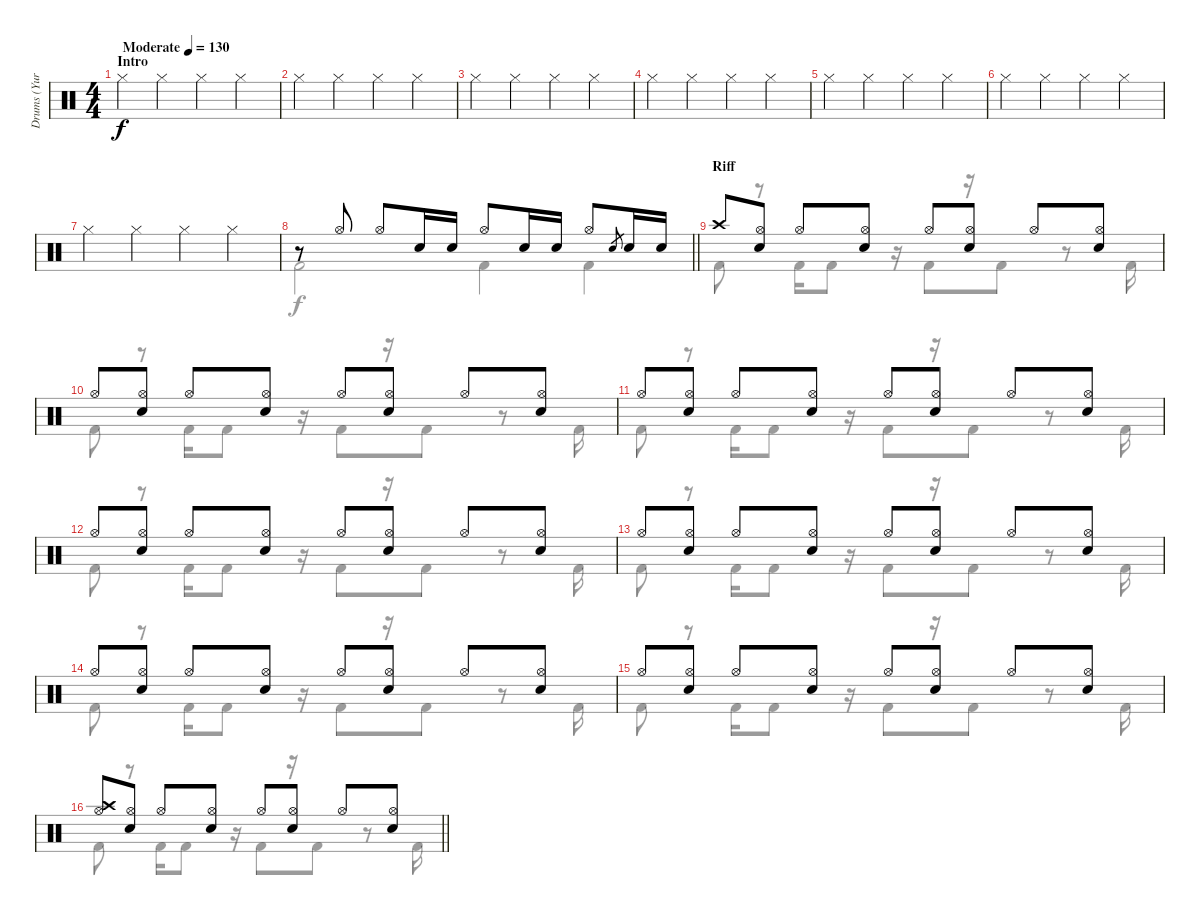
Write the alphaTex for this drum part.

\track ("Drums (Yuri)" "Drums (Yur") {instrument percussion}
\staff {score}
\articulation defaults
\voice
\ts (4 4)
\section ("" "Intro")
\tempo (130 "Moderate")
\clef neutral
\ks c "Hi-Hat (closed)".4{dy f} "Hi-Hat (closed)".4 "Hi-Hat (closed)".4 "Hi-Hat (closed)".4
|
"Hi-Hat (closed)".4 "Hi-Hat (closed)".4 "Hi-Hat (closed)".4 "Hi-Hat (closed)".4 |
"Hi-Hat (closed)".4 "Hi-Hat (closed)".4 "Hi-Hat (closed)".4 "Hi-Hat (closed)".4 |
"Hi-Hat (closed)".4 "Hi-Hat (closed)".4 "Hi-Hat (closed)".4 "Hi-Hat (closed)".4 |
"Hi-Hat (closed)".4 "Hi-Hat (closed)".4 "Hi-Hat (closed)".4 "Hi-Hat (closed)".4 |
"Hi-Hat (closed)".4 "Hi-Hat (closed)".4 "Hi-Hat (closed)".4 "Hi-Hat (closed)".4 |
"Hi-Hat (closed)".4 "Hi-Hat (closed)".4 "Hi-Hat (closed)".4 "Hi-Hat (closed)".4 |
\barLineRight lightlight
r.8 "Hi-Hat (open)".8 "Hi-Hat (open)".8 "Electric Snare (hit)".16 "Electric Snare (hit)".16 "Hi-Hat (open)".8 "Electric Snare (hit)".16 "Electric Snare (hit)".16 "Hi-Hat (open)".8 "Electric Snare (hit)".8{gr} "Electric Snare (hit)".16 "Electric Snare (hit)".16 |
\section ("" "Riff")
"Crash high (hit)".8 ("Electric Snare (hit)" "Hi-Hat (open)").8 "Hi-Hat (open)".8 ("Electric Snare (hit)" "Hi-Hat (open)").8 "Hi-Hat (open)".8 ("Electric Snare (hit)" "Hi-Hat (open)").8 "Hi-Hat (open)".8 ("Electric Snare (hit)" "Hi-Hat (open)").8 |
"Hi-Hat (open)".8 ("Electric Snare (hit)" "Hi-Hat (open)").8 "Hi-Hat (open)".8 ("Electric Snare (hit)" "Hi-Hat (open)").8 "Hi-Hat (open)".8 ("Electric Snare (hit)" "Hi-Hat (open)").8 "Hi-Hat (open)".8 ("Electric Snare (hit)" "Hi-Hat (open)").8 |
"Hi-Hat (open)".8 ("Electric Snare (hit)" "Hi-Hat (open)").8 "Hi-Hat (open)".8 ("Electric Snare (hit)" "Hi-Hat (open)").8 "Hi-Hat (open)".8 ("Electric Snare (hit)" "Hi-Hat (open)").8 "Hi-Hat (open)".8 ("Electric Snare (hit)" "Hi-Hat (open)").8 |
"Hi-Hat (open)".8 ("Electric Snare (hit)" "Hi-Hat (open)").8 "Hi-Hat (open)".8 ("Electric Snare (hit)" "Hi-Hat (open)").8 "Hi-Hat (open)".8 ("Electric Snare (hit)" "Hi-Hat (open)").8 "Hi-Hat (open)".8 ("Electric Snare (hit)" "Hi-Hat (open)").8 |
"Hi-Hat (open)".8 ("Electric Snare (hit)" "Hi-Hat (open)").8 "Hi-Hat (open)".8 ("Electric Snare (hit)" "Hi-Hat (open)").8 "Hi-Hat (open)".8 ("Electric Snare (hit)" "Hi-Hat (open)").8 "Hi-Hat (open)".8 ("Electric Snare (hit)" "Hi-Hat (open)").8 |
"Hi-Hat (open)".8 ("Electric Snare (hit)" "Hi-Hat (open)").8 "Hi-Hat (open)".8 ("Electric Snare (hit)" "Hi-Hat (open)").8 "Hi-Hat (open)".8 ("Electric Snare (hit)" "Hi-Hat (open)").8 "Hi-Hat (open)".8 ("Electric Snare (hit)" "Hi-Hat (open)").8 |
"Hi-Hat (open)".8 ("Electric Snare (hit)" "Hi-Hat (open)").8 "Hi-Hat (open)".8 ("Electric Snare (hit)" "Hi-Hat (open)").8 "Hi-Hat (open)".8 ("Electric Snare (hit)" "Hi-Hat (open)").8 "Hi-Hat (open)".8 ("Electric Snare (hit)" "Hi-Hat (open)").8 |
\barLineRight lightlight
("Crash high (hit)" "Hi-Hat (open)").8 ("Electric Snare (hit)" "Hi-Hat (open)").8 "Hi-Hat (open)".8 ("Electric Snare (hit)" "Hi-Hat (open)").8 "Hi-Hat (open)".8 ("Electric Snare (hit)" "Hi-Hat (open)").8 "Hi-Hat (open)".8 ("Electric Snare (hit)" "Hi-Hat (open)").8
\voice
\clef neutral
\ottava regular
\simile none
\ks c
|
|
|
|
|
|
|
\barLineRight lightlight "Kick (hit) 2".2 "Kick (hit) 2".4 "Kick (hit) 2".4
|
"Kick (hit) 2".8 r.8 "Kick (hit) 2".16 "Kick (hit) 2".8 r.16 "Kick (hit) 2".8 r.16 "Kick (hit) 2".8 r.8 "Kick (hit) 2".16 |
"Kick (hit) 2".8 r.8 "Kick (hit) 2".16 "Kick (hit) 2".8 r.16 "Kick (hit) 2".8 r.16 "Kick (hit) 2".8 r.8 "Kick (hit) 2".16 |
"Kick (hit) 2".8 r.8 "Kick (hit) 2".16 "Kick (hit) 2".8 r.16 "Kick (hit) 2".8 r.16 "Kick (hit) 2".8 r.8 "Kick (hit) 2".16 |
"Kick (hit) 2".8 r.8 "Kick (hit) 2".16 "Kick (hit) 2".8 r.16 "Kick (hit) 2".8 r.16 "Kick (hit) 2".8 r.8 "Kick (hit) 2".16 |
"Kick (hit) 2".8 r.8 "Kick (hit) 2".16 "Kick (hit) 2".8 r.16 "Kick (hit) 2".8 r.16 "Kick (hit) 2".8 r.8 "Kick (hit) 2".16 |
"Kick (hit) 2".8 r.8 "Kick (hit) 2".16 "Kick (hit) 2".8 r.16 "Kick (hit) 2".8 r.16 "Kick (hit) 2".8 r.8 "Kick (hit) 2".16 |
"Kick (hit) 2".8 r.8 "Kick (hit) 2".16 "Kick (hit) 2".8 r.16 "Kick (hit) 2".8 r.16 "Kick (hit) 2".8 r.8 "Kick (hit) 2".16 |
\barLineRight lightlight "Kick (hit) 2".8
r.8 "Kick (hit) 2".16 "Kick (hit) 2".8 r.16 "Kick (hit) 2".8 r.16 "Kick (hit) 2".8 r.8 "Kick (hit) 2".16
